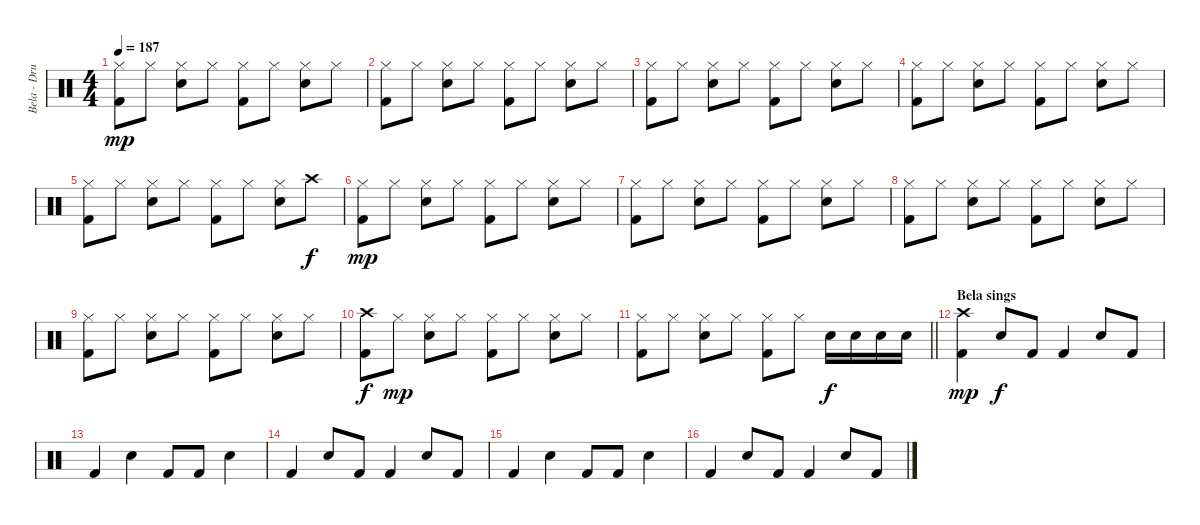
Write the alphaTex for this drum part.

\track ("Bela - Drums" "Bela - Dru") {instrument percussion}
\staff {score}
\articulation defaults
\ts (4 4)
\tempo 187
\clef neutral
\ks c
("Hi-Hat (closed)" "Kick (hit) 2").8{dy mp} "Hi-Hat (closed)".8 ("Hi-Hat (closed)" "Snare (hit) 2").8 "Hi-Hat (closed)".8 ("Hi-Hat (closed)" "Kick (hit) 2").8 "Hi-Hat (closed)".8 ("Hi-Hat (closed)" "Snare (hit) 2").8 "Hi-Hat (closed)".8 |
("Hi-Hat (closed)" "Kick (hit) 2").8 "Hi-Hat (closed)".8 ("Hi-Hat (closed)" "Snare (hit) 2").8 "Hi-Hat (closed)".8 ("Hi-Hat (closed)" "Kick (hit) 2").8 "Hi-Hat (closed)".8 ("Hi-Hat (closed)" "Snare (hit) 2").8 "Hi-Hat (closed)".8 |
("Hi-Hat (closed)" "Kick (hit) 2").8 "Hi-Hat (closed)".8 ("Hi-Hat (closed)" "Snare (hit) 2").8 "Hi-Hat (closed)".8 ("Hi-Hat (closed)" "Kick (hit) 2").8 "Hi-Hat (closed)".8 ("Hi-Hat (closed)" "Snare (hit) 2").8 "Hi-Hat (closed)".8 |
("Hi-Hat (closed)" "Kick (hit) 2").8 "Hi-Hat (closed)".8 ("Hi-Hat (closed)" "Snare (hit) 2").8 "Hi-Hat (closed)".8 ("Hi-Hat (closed)" "Kick (hit) 2").8 "Hi-Hat (closed)".8 ("Hi-Hat (closed)" "Snare (hit) 2").8 "Hi-Hat (closed)".8 |
("Hi-Hat (closed)" "Kick (hit) 2").8 "Hi-Hat (closed)".8 ("Hi-Hat (closed)" "Snare (hit) 2").8 "Hi-Hat (closed)".8 ("Hi-Hat (closed)" "Kick (hit) 2").8 "Hi-Hat (closed)".8 ("Hi-Hat (closed)" "Snare (hit) 2").8 "Crash high (hit)".8{dy f} |
("Hi-Hat (closed)" "Kick (hit) 2").8{dy mp} "Hi-Hat (closed)".8 ("Hi-Hat (closed)" "Snare (hit) 2").8 "Hi-Hat (closed)".8 ("Hi-Hat (closed)" "Kick (hit) 2").8 "Hi-Hat (closed)".8 ("Hi-Hat (closed)" "Snare (hit) 2").8 "Hi-Hat (closed)".8 |
("Hi-Hat (closed)" "Kick (hit) 2").8 "Hi-Hat (closed)".8 ("Hi-Hat (closed)" "Snare (hit) 2").8 "Hi-Hat (closed)".8 ("Hi-Hat (closed)" "Kick (hit) 2").8 "Hi-Hat (closed)".8 ("Hi-Hat (closed)" "Snare (hit) 2").8 "Hi-Hat (closed)".8 |
("Hi-Hat (closed)" "Kick (hit) 2").8 "Hi-Hat (closed)".8 ("Hi-Hat (closed)" "Snare (hit) 2").8 "Hi-Hat (closed)".8 ("Hi-Hat (closed)" "Kick (hit) 2").8 "Hi-Hat (closed)".8 ("Hi-Hat (closed)" "Snare (hit) 2").8 "Hi-Hat (closed)".8 |
("Hi-Hat (closed)" "Kick (hit) 2").8 "Hi-Hat (closed)".8 ("Hi-Hat (closed)" "Snare (hit) 2").8 "Hi-Hat (closed)".8 ("Hi-Hat (closed)" "Kick (hit) 2").8 "Hi-Hat (closed)".8 ("Hi-Hat (closed)" "Snare (hit) 2").8 "Hi-Hat (closed)".8 |
("Crash high (hit)" "Kick (hit) 2").8{dy f} "Hi-Hat (closed)".8{dy mp} ("Hi-Hat (closed)" "Snare (hit) 2").8 "Hi-Hat (closed)".8 ("Hi-Hat (closed)" "Kick (hit) 2").8 "Hi-Hat (closed)".8 ("Hi-Hat (closed)" "Snare (hit) 2").8 "Hi-Hat (closed)".8 |
\barLineRight lightlight
("Hi-Hat (closed)" "Kick (hit) 2").8 "Hi-Hat (closed)".8 ("Hi-Hat (closed)" "Snare (hit) 2").8 "Hi-Hat (closed)".8 ("Hi-Hat (closed)" "Kick (hit) 2").8 "Hi-Hat (closed)".8 "Snare (hit) 2".16{dy f} "Snare (hit) 2".16 "Snare (hit) 2".16 "Snare (hit) 2".16 |
\section ("" "Bela sings")
("Crash high (hit)" "Kick (hit) 2").4{dy mp} "Snare (hit) 2".8{dy f} "Kick (hit) 2".8 "Kick (hit) 2".4 "Snare (hit) 2".8 "Kick (hit) 2".8 |
"Kick (hit) 2".4 "Snare (hit) 2".4 "Kick (hit) 2".8 "Kick (hit) 2".8 "Snare (hit) 2".4 |
"Kick (hit) 2".4 "Snare (hit) 2".8 "Kick (hit) 2".8 "Kick (hit) 2".4 "Snare (hit) 2".8 "Kick (hit) 2".8 |
"Kick (hit) 2".4 "Snare (hit) 2".4 "Kick (hit) 2".8 "Kick (hit) 2".8 "Snare (hit) 2".4 |
"Kick (hit) 2".4 "Snare (hit) 2".8 "Kick (hit) 2".8 "Kick (hit) 2".4 "Snare (hit) 2".8 "Kick (hit) 2".8
